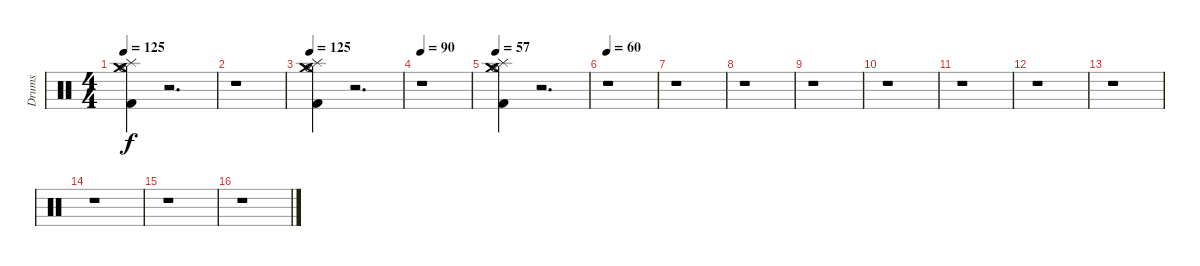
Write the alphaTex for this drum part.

\track ("Drums" "Drums") {instrument percussion}
\staff {score}
\articulation defaults
\ts (4 4)
\tempo 125
\clef neutral
\ks c
("Crash medium (hit)" "Splash (hit)" "Hi-Hat (open)" "Kick (hit) 2").4{dy f} r.2{d} |
r.1 |
\tempo 125
("Crash medium (hit)" "Splash (hit)" "Hi-Hat (open)" "Kick (hit) 2").4 r.2{d} |
\tempo 90
r.1 |
\tempo 57
("Crash medium (hit)" "Splash (hit)" "Hi-Hat (open)" "Kick (hit) 2").4 r.2{d} |
\tempo 60
r.1 |
r.1 |
r.1 |
r.1 |
r.1 |
r.1 |
r.1 |
r.1 |
r.1 |
r.1 |
r.1
